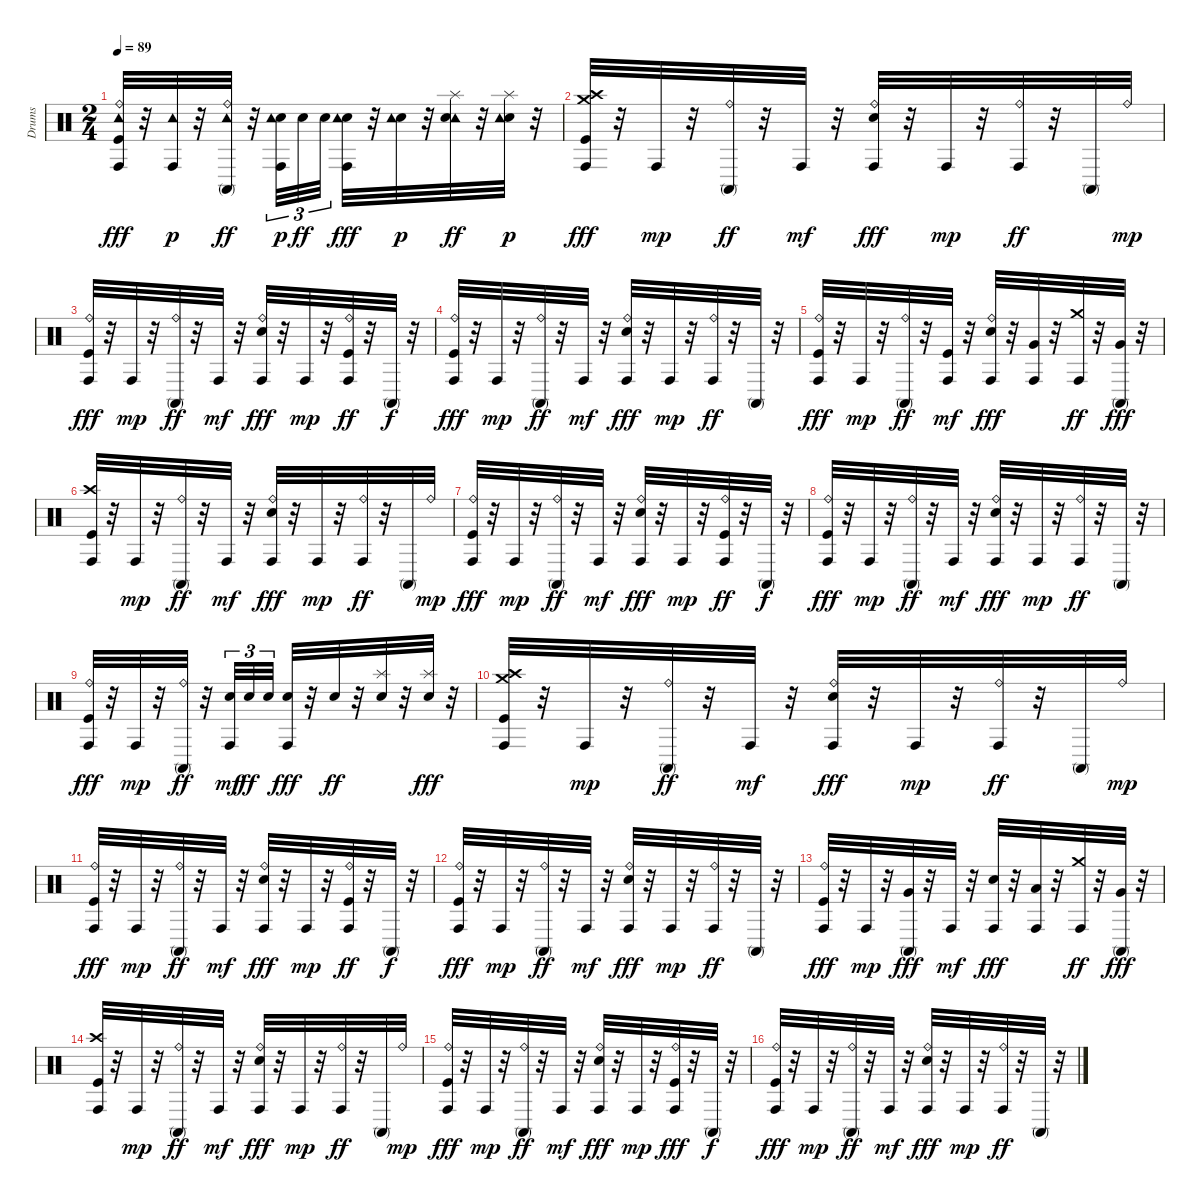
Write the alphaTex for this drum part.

\track ("Drums" "Drums") {instrument percussion}
\staff {score}
\articulation defaults
\ts (2 4)
\tempo 89
\clef neutral
\ks c
("Tambourine (hit)" "Conga high (hit)" "Ride (bell)" "Kick (hit)").32{dy fff} r.32 ("Conga high (hit)" "Tambourine (hit)").32{dy p} r.32 ("Ride (bell)" "Tambourine (hit)" "Conga high (mute)").32{dy ff} r.32 ("Conga high (hit)" "Snare (hit) 2" "Tambourine (hit)").32{tu (3 2) dy p} "Snare (hit) 2".32{tu (3 2) dy ff} "Snare (hit) 2".32{tu (3 2)} ("Snare (hit) 2" "Conga high (hit)" "Tambourine (hit)").32{dy fff} r.32 ("Snare (hit) 2" "Tambourine (hit)").32{dy p} r.32 ("Tambourine (hit)" "Splash (hit)" "Snare (hit) 2").32{dy ff} r.32 ("Splash (hit)" "Snare (hit) 2" "Tambourine (hit)").32{dy p} r.32 |
("Crash high (hit)" "Kick (hit)" "Crash medium (hit)" "Conga high (hit)").32{dy fff} r.32 "Conga high (hit)".32{dy mp} r.32 ("Conga high (mute)" "Ride (bell)").32{dy ff} r.32 "Conga high (hit)".32{dy mf} r.32 ("Ride (bell)" "Conga high (hit)" "Snare (hit) 2").32{dy fff} r.32 "Conga high (hit)".32{dy mp} r.32 ("Ride (bell)" "Conga high (hit)").32{dy ff} r.32 "Conga high (mute)".32 "Ride (bell)".32{dy mp} |
("Conga high (hit)" "Kick (hit)" "Ride (bell)").32{dy fff} r.32 "Conga high (hit)".32{dy mp} r.32 ("Ride (bell)" "Conga high (mute)").32{dy ff} r.32 "Conga high (hit)".32{dy mf} r.32 ("Ride (bell)" "Snare (hit) 2" "Conga high (hit)").32{dy fff} r.32 "Conga high (hit)".32{dy mp} r.32 ("Kick (hit)" "Ride (bell)" "Conga high (hit)").32{dy ff} r.32 "Conga high (mute)".32{dy f} r.32 |
("Kick (hit)" "Conga high (hit)" "Ride (bell)").32{dy fff} r.32 "Conga high (hit)".32{dy mp} r.32 ("Conga high (mute)" "Ride (bell)").32{dy ff} r.32 "Conga high (hit)".32{dy mf} r.32 ("Snare (hit) 2" "Conga high (hit)" "Ride (bell)").32{dy fff} r.32 "Conga high (hit)".32{dy mp} r.32 ("Conga high (hit)" "Ride (bell)").32{dy ff} r.32 "Conga high (mute)".32 r.32 |
("Kick (hit)" "Ride (bell)" "Conga high (hit)").32{dy fff} r.32 "Conga high (hit)".32{dy mp} r.32 ("Conga high (mute)" "Ride (bell)").32{dy ff} r.32 ("Kick (hit)" "Conga high (hit)").32{dy mf} r.32 ("Ride (bell)" "Snare (hit) 2" "Conga high (hit)").32{dy fff} r.32 ("Conga high (hit)" "Very Low Tom (hit)").32 r.32 ("Crash medium (hit)" "Conga high (hit)").32{dy ff} r.32 ("Conga high (mute)" "Very Low Tom (hit)").32{dy fff} r.32 |
("Crash high (hit)" "Kick (hit)" "Conga high (hit)").32 r.32 "Conga high (hit)".32{dy mp} r.32 ("Conga high (mute)" "Ride (bell)").32{dy ff} r.32 "Conga high (hit)".32{dy mf} r.32 ("Ride (bell)" "Snare (hit) 2" "Conga high (hit)").32{dy fff} r.32 "Conga high (hit)".32{dy mp} r.32 ("Conga high (hit)" "Ride (bell)").32{dy ff} r.32 "Conga high (mute)".32 "Ride (bell)".32{dy mp} |
("Conga high (hit)" "Kick (hit)" "Ride (bell)").32{dy fff} r.32 "Conga high (hit)".32{dy mp} r.32 ("Conga high (mute)" "Ride (bell)").32{dy ff} r.32 "Conga high (hit)".32{dy mf} r.32 ("Ride (bell)" "Conga high (hit)" "Snare (hit) 2").32{dy fff} r.32 "Conga high (hit)".32{dy mp} r.32 ("Kick (hit)" "Ride (bell)" "Conga high (hit)").32{dy ff} r.32 "Conga high (mute)".32{dy f} r.32 |
("Ride (bell)" "Conga high (hit)" "Kick (hit)").32{dy fff} r.32 "Conga high (hit)".32{dy mp} r.32 ("Ride (bell)" "Conga high (mute)").32{dy ff} r.32 "Conga high (hit)".32{dy mf} r.32 ("Ride (bell)" "Conga high (hit)" "Snare (hit) 2").32{dy fff} r.32 "Conga high (hit)".32{dy mp} r.32 ("Conga high (hit)" "Ride (bell)").32{dy ff} r.32 "Conga high (mute)".32 r.32 |
("Ride (bell)" "Conga high (hit)" "Kick (hit)").32{dy fff} r.32 "Conga high (hit)".32{dy mp} r.32 ("Ride (bell)" "Conga high (mute)").32{dy ff} r.32 ("Snare (hit) 2" "Conga high (hit)").32{tu (3 2) dy mf} "Snare (hit) 2".32{tu (3 2) dy ff} "Snare (hit) 2".32{tu (3 2)} ("Snare (hit) 2" "Conga high (hit)").32{dy fff} r.32 "Snare (hit) 2".32{dy ff} r.32 ("Splash (hit)" "Snare (hit) 2").32 r.32 ("Splash (hit)" "Snare (hit) 2").32{dy fff} r.32 |
("Conga high (hit)" "Kick (hit)" "Crash high (hit)" "Crash medium (hit)").32 r.32 "Conga high (hit)".32{dy mp} r.32 ("Ride (bell)" "Conga high (mute)").32{dy ff} r.32 "Conga high (hit)".32{dy mf} r.32 ("Conga high (hit)" "Snare (hit) 2" "Ride (bell)").32{dy fff} r.32 "Conga high (hit)".32{dy mp} r.32 ("Conga high (hit)" "Ride (bell)").32{dy ff} r.32 "Conga high (mute)".32 "Ride (bell)".32{dy mp} |
("Kick (hit)" "Conga high (hit)" "Ride (bell)").32{dy fff} r.32 "Conga high (hit)".32{dy mp} r.32 ("Ride (bell)" "Conga high (mute)").32{dy ff} r.32 "Conga high (hit)".32{dy mf} r.32 ("Snare (hit) 2" "Ride (bell)" "Conga high (hit)").32{dy fff} r.32 "Conga high (hit)".32{dy mp} r.32 ("Ride (bell)" "Kick (hit)" "Conga high (hit)").32{dy ff} r.32 "Conga high (mute)".32{dy f} r.32 |
("Kick (hit)" "Conga high (hit)" "Ride (bell)").32{dy fff} r.32 "Conga high (hit)".32{dy mp} r.32 ("Ride (bell)" "Conga high (mute)").32{dy ff} r.32 "Conga high (hit)".32{dy mf} r.32 ("Ride (bell)" "Snare (hit) 2" "Conga high (hit)").32{dy fff} r.32 "Conga high (hit)".32{dy mp} r.32 ("Conga high (hit)" "Ride (bell)").32{dy ff} r.32 "Conga high (mute)".32 r.32 |
("Ride (bell)" "Conga high (hit)" "Kick (hit)").32{dy fff} r.32 "Conga high (hit)".32{dy mp} r.32 ("Conga high (mute)" "Very Low Tom (hit)").32{dy fff} r.32 "Conga high (hit)".32{dy mf} r.32 ("Snare (hit) 2" "Conga high (hit)").32{dy fff} r.32 ("Conga high (hit)" "Low Tom (hit)").32 r.32 ("Crash medium (hit)" "Conga high (hit)").32{dy ff} r.32 ("Conga high (mute)" "Very Low Tom (hit)").32{dy fff} r.32 |
("Crash high (hit)" "Conga high (hit)" "Kick (hit)").32 r.32 "Conga high (hit)".32{dy mp} r.32 ("Conga high (mute)" "Ride (bell)").32{dy ff} r.32 "Conga high (hit)".32{dy mf} r.32 ("Conga high (hit)" "Ride (bell)" "Snare (hit) 2").32{dy fff} r.32 "Conga high (hit)".32{dy mp} r.32 ("Ride (bell)" "Conga high (hit)").32{dy ff} r.32 "Conga high (mute)".32 "Ride (bell)".32{dy mp} |
("Ride (bell)" "Conga high (hit)" "Kick (hit)").32{dy fff} r.32 "Conga high (hit)".32{dy mp} r.32 ("Ride (bell)" "Conga high (mute)").32{dy ff} r.32 "Conga high (hit)".32{dy mf} r.32 ("Ride (bell)" "Snare (hit) 2" "Conga high (hit)").32{dy fff} r.32 "Conga high (hit)".32{dy mp} r.32 ("Ride (bell)" "Conga high (hit)" "Kick (hit)").32{dy fff} r.32 "Conga high (mute)".32{dy f} r.32 |
("Conga high (hit)" "Kick (hit)" "Ride (bell)").32{dy fff} r.32 "Conga high (hit)".32{dy mp} r.32 ("Conga high (mute)" "Ride (bell)").32{dy ff} r.32 "Conga high (hit)".32{dy mf} r.32 ("Ride (bell)" "Conga high (hit)" "Snare (hit) 2").32{dy fff} r.32 "Conga high (hit)".32{dy mp} r.32 ("Ride (bell)" "Conga high (hit)").32{dy ff} r.32 "Conga high (mute)".32 r.32
